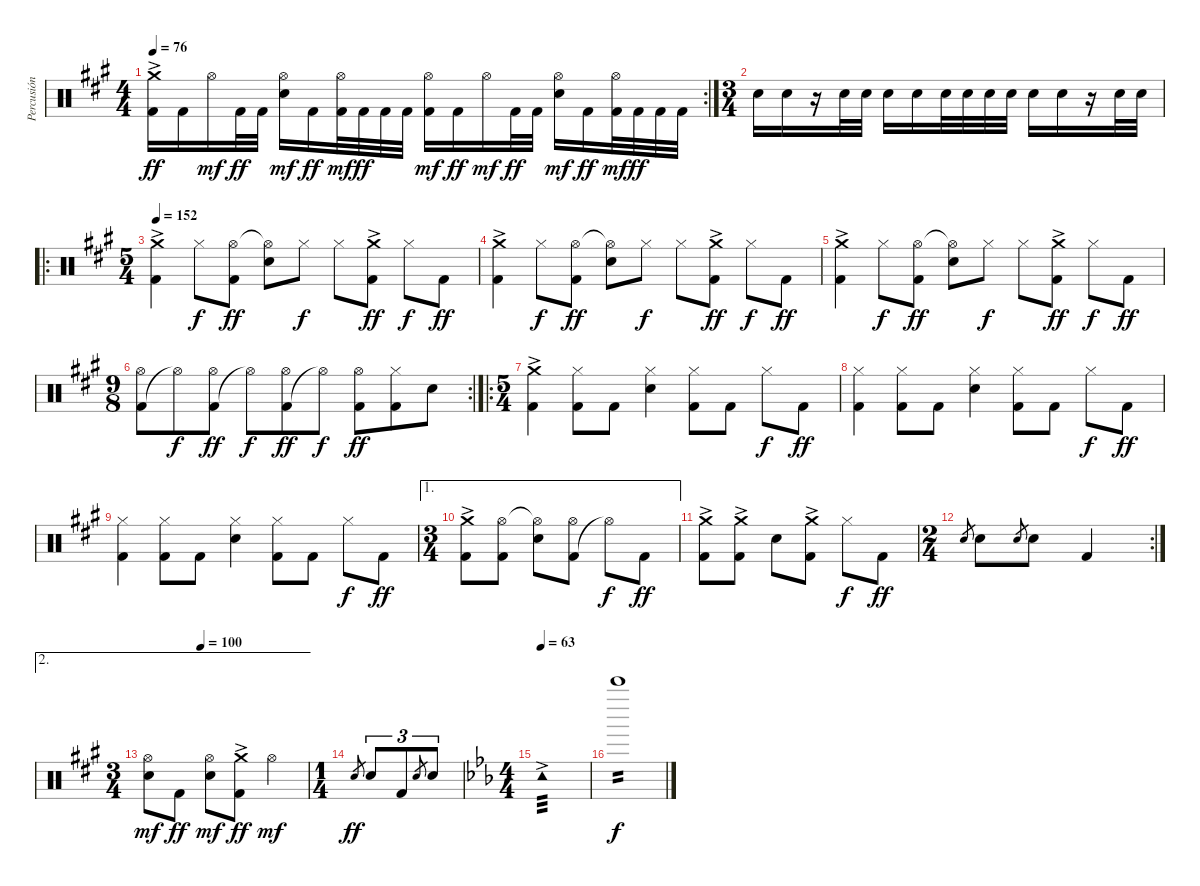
\track ("Percusión" "Percusión") {instrument percussion}
\staff {score}
\articulation defaults
\rc 2
\ts (4 4)
\tempo 76
\clef neutral
\ks a
("Kick (hit) 2" "Crash medium (hit)"{ac}).16{dy ff} "Kick (hit) 2".16 "Hi-Hat (open)".16{dy mf} "Kick (hit) 2".32{dy ff} "Kick (hit) 2".32 ("Electric Snare (hit)" "Hi-Hat (open)").16{dy mf} "Kick (hit) 2".16{dy ff} ("Kick (hit) 2" "Hi-Hat (open)").32{dy mf} "Kick (hit) 2".32{dy ff} "Kick (hit) 2".32 "Kick (hit) 2".32 ("Kick (hit) 2" "Hi-Hat (open)").16{dy mf} "Kick (hit) 2".16{dy ff} "Hi-Hat (open)".16{dy mf} "Kick (hit) 2".32{dy ff} "Kick (hit) 2".32 ("Electric Snare (hit)" "Hi-Hat (open)").16{dy mf} "Kick (hit) 2".16{dy ff} ("Kick (hit) 2" "Hi-Hat (open)").32{dy mf} "Kick (hit) 2".32{dy ff} "Kick (hit) 2".32 "Kick (hit) 2".32 |
\ts (3 4)
"Electric Snare (hit)".16 "Electric Snare (hit)".16 r.16 "Electric Snare (hit)".32 "Electric Snare (hit)".32 "Electric Snare (hit)".16 "Electric Snare (hit)".16 "Electric Snare (hit)".32 "Electric Snare (hit)".32 "Electric Snare (hit)".32 "Electric Snare (hit)".32 "Electric Snare (hit)".16 "Electric Snare (hit)".16 r.16 "Electric Snare (hit)".32 "Electric Snare (hit)".32 |
\ro
\ts (5 4)
\tempo 152
("Kick (hit) 2" "Crash medium (hit)"{ac}).4 "Hi-Hat (closed)".8{dy f} ("Kick (hit) 2" "Hi-Hat (open)").8{dy ff} ("Electric Snare (hit)" "Hi-Hat (open)"{t}).8 "Hi-Hat (closed)".8{dy f} "Hi-Hat (closed)".8 ("Kick (hit) 2" "Crash medium (hit)"{ac}).8{dy ff} "Hi-Hat (closed)".8{dy f} "Kick (hit) 2".8{dy ff} |
("Kick (hit) 2" "Crash medium (hit)"{ac}).4 "Hi-Hat (closed)".8{dy f} ("Kick (hit) 2" "Hi-Hat (open)").8{dy ff} ("Electric Snare (hit)" "Hi-Hat (open)"{t}).8 "Hi-Hat (closed)".8{dy f} "Hi-Hat (closed)".8 ("Kick (hit) 2" "Crash medium (hit)"{ac}).8{dy ff} "Hi-Hat (closed)".8{dy f} "Kick (hit) 2".8{dy ff} |
("Kick (hit) 2" "Crash medium (hit)"{ac}).4 "Hi-Hat (closed)".8{dy f} ("Kick (hit) 2" "Hi-Hat (open)").8{dy ff} ("Electric Snare (hit)" "Hi-Hat (open)"{t}).8 "Hi-Hat (closed)".8{dy f} "Hi-Hat (closed)".8 ("Kick (hit) 2" "Crash medium (hit)"{ac}).8{dy ff} "Hi-Hat (closed)".8{dy f} "Kick (hit) 2".8{dy ff} |
\rc 2
\ts (9 8)
("Kick (hit) 2" "Hi-Hat (open)").8 "Hi-Hat (open)"{t}.8{dy f} ("Kick (hit) 2" "Hi-Hat (open)").8{dy ff} "Hi-Hat (open)"{t}.8{dy f} ("Kick (hit) 2" "Hi-Hat (open)").8{dy ff} "Hi-Hat (open)"{t}.8{dy f} ("Kick (hit) 2" "Hi-Hat (open)").8{dy ff} ("Kick (hit) 2" "Hi-Hat (closed)").8 "Electric Snare (hit)".8 |
\ro
\ts (5 4)
("Kick (hit) 2" "Crash medium (hit)"{ac}).4 ("Kick (hit) 2" "Hi-Hat (closed)").8 "Kick (hit) 2".8 ("Electric Snare (hit)" "Hi-Hat (closed)").4 ("Kick (hit) 2" "Hi-Hat (closed)").8 "Kick (hit) 2".8 "Hi-Hat (closed)".8{dy f} "Kick (hit) 2".8{dy ff} |
("Kick (hit) 2" "Hi-Hat (closed)").4 ("Kick (hit) 2" "Hi-Hat (closed)").8 "Kick (hit) 2".8 ("Electric Snare (hit)" "Hi-Hat (closed)").4 ("Kick (hit) 2" "Hi-Hat (closed)").8 "Kick (hit) 2".8 "Hi-Hat (closed)".8{dy f} "Kick (hit) 2".8{dy ff} |
("Kick (hit) 2" "Hi-Hat (closed)").4 ("Kick (hit) 2" "Hi-Hat (closed)").8 "Kick (hit) 2".8 ("Electric Snare (hit)" "Hi-Hat (closed)").4 ("Kick (hit) 2" "Hi-Hat (closed)").8 "Kick (hit) 2".8 "Hi-Hat (closed)".8{dy f} "Kick (hit) 2".8{dy ff} |
\ae 1
\ts (3 4)
("Kick (hit) 2" "Crash medium (hit)"{ac}).8 ("Kick (hit) 2" "Hi-Hat (open)").8 ("Electric Snare (hit)" "Hi-Hat (open)"{t}).8 ("Kick (hit) 2" "Hi-Hat (open)").8 "Hi-Hat (open)"{t}.8{dy f} "Kick (hit) 2".8{dy ff} |
("Kick (hit) 2" "Crash medium (hit)"{ac}).8 ("Kick (hit) 2" "Crash medium (hit)"{ac}).8 "Electric Snare (hit)".8 ("Kick (hit) 2" "Crash medium (hit)"{ac}).8 "Hi-Hat (closed)".8{dy f} "Kick (hit) 2".8{dy ff} |
\rc 2
\ts (2 4)
"Electric Snare (hit)".8{gr} "Electric Snare (hit)".8 "Electric Snare (hit)".8{gr} "Electric Snare (hit)".8 "Kick (hit) 2".4 |
\ae 2
\ts (3 4)
\tempo (100 0.3333333333333333)
("Electric Snare (hit)" "Hi-Hat (open)").8{dy mf} "Kick (hit) 2".8{dy ff} ("Electric Snare (hit)" "Hi-Hat (open)").8{dy mf} ("Kick (hit) 2" "Crash medium (hit)"{ac}).8{dy ff} "Hi-Hat (open)".4{dy mf} |
\ts (1 4)
"Electric Snare (hit)".8{gr dy ff} "Electric Snare (hit)".8{tu (3 2)} "Kick (hit) 2".8{tu (3 2)} "Electric Snare (hit)".8{gr} "Electric Snare (hit)".8{tu (3 2)} |
\ts (4 4)
\tempo 63
\ks eb "Tambourine (hit)"{ac}.1{tp 3}
|
"Bell Tree (hit)".1{tp 2 dy f}
